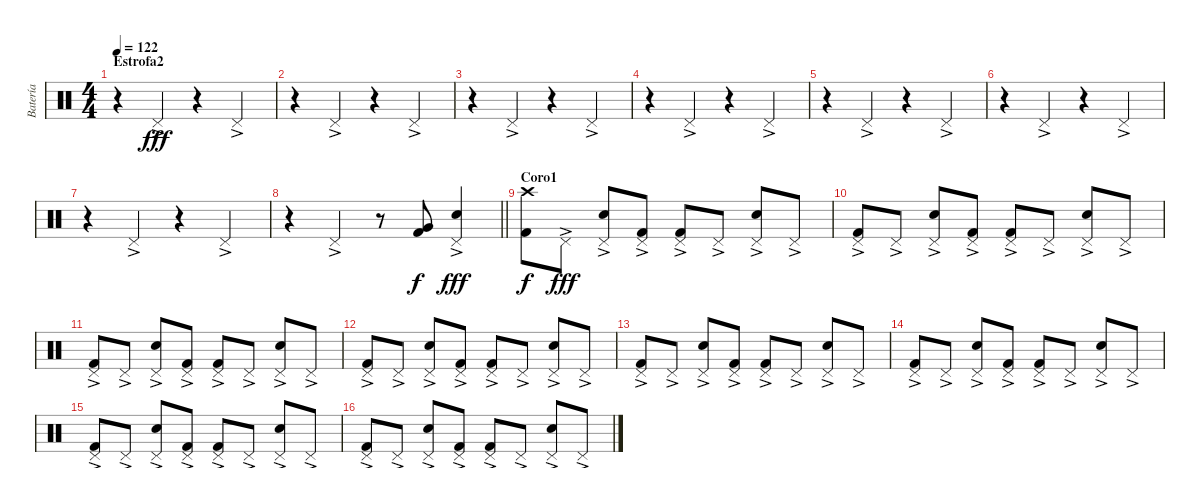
\track ("Batería" "Batería") {instrument percussion}
\staff {score}
\articulation defaults
\ts (4 4)
\section ("" "Estrofa2")
\tempo 122
\clef neutral
\ks c
r.4{dy fff} "Pedal Hi-Hat (hit)"{ac}.4 r.4 "Pedal Hi-Hat (hit)"{ac}.4 |
r.4 "Pedal Hi-Hat (hit)"{ac}.4 r.4 "Pedal Hi-Hat (hit)"{ac}.4 |
r.4 "Pedal Hi-Hat (hit)"{ac}.4 r.4 "Pedal Hi-Hat (hit)"{ac}.4 |
r.4 "Pedal Hi-Hat (hit)"{ac}.4 r.4 "Pedal Hi-Hat (hit)"{ac}.4 |
r.4 "Pedal Hi-Hat (hit)"{ac}.4 r.4 "Pedal Hi-Hat (hit)"{ac}.4 |
r.4 "Pedal Hi-Hat (hit)"{ac}.4 r.4 "Pedal Hi-Hat (hit)"{ac}.4 |
r.4 "Pedal Hi-Hat (hit)"{ac}.4 r.4 "Pedal Hi-Hat (hit)"{ac}.4 |
\barLineRight lightlight
r.4 "Pedal Hi-Hat (hit)"{ac}.4 r.8 ("Very Low Tom (hit)" "Kick (hit) 2").8{dy f} ("Pedal Hi-Hat (hit)" "Electric Snare (hit)"{ac}).4{dy fff} |
\section ("" "Coro1")
("Crash high (hit)" "Kick (hit) 2").8{dy f} "Pedal Hi-Hat (hit)"{ac}.8{dy fff} ("Pedal Hi-Hat (hit)"{ac} "Electric Snare (hit)").8 ("Pedal Hi-Hat (hit)"{ac} "Kick (hit) 2").8 ("Pedal Hi-Hat (hit)"{ac} "Kick (hit) 2").8 "Pedal Hi-Hat (hit)"{ac}.8 ("Pedal Hi-Hat (hit)"{ac} "Electric Snare (hit)").8 "Pedal Hi-Hat (hit)"{ac}.8 |
("Pedal Hi-Hat (hit)"{ac} "Kick (hit) 2").8 "Pedal Hi-Hat (hit)"{ac}.8 ("Pedal Hi-Hat (hit)"{ac} "Electric Snare (hit)").8 ("Pedal Hi-Hat (hit)"{ac} "Kick (hit) 2").8 ("Pedal Hi-Hat (hit)"{ac} "Kick (hit) 2").8 "Pedal Hi-Hat (hit)"{ac}.8 ("Pedal Hi-Hat (hit)"{ac} "Electric Snare (hit)").8 "Pedal Hi-Hat (hit)"{ac}.8 |
("Pedal Hi-Hat (hit)"{ac} "Kick (hit) 2").8 "Pedal Hi-Hat (hit)"{ac}.8 ("Pedal Hi-Hat (hit)"{ac} "Electric Snare (hit)").8 ("Pedal Hi-Hat (hit)"{ac} "Kick (hit) 2").8 ("Pedal Hi-Hat (hit)"{ac} "Kick (hit) 2").8 "Pedal Hi-Hat (hit)"{ac}.8 ("Pedal Hi-Hat (hit)"{ac} "Electric Snare (hit)").8 "Pedal Hi-Hat (hit)"{ac}.8 |
("Pedal Hi-Hat (hit)"{ac} "Kick (hit) 2").8 "Pedal Hi-Hat (hit)"{ac}.8 ("Pedal Hi-Hat (hit)"{ac} "Electric Snare (hit)").8 ("Pedal Hi-Hat (hit)"{ac} "Kick (hit) 2").8 ("Pedal Hi-Hat (hit)"{ac} "Kick (hit) 2").8 "Pedal Hi-Hat (hit)"{ac}.8 ("Pedal Hi-Hat (hit)"{ac} "Electric Snare (hit)").8 "Pedal Hi-Hat (hit)"{ac}.8 |
("Pedal Hi-Hat (hit)"{ac} "Kick (hit) 2").8 "Pedal Hi-Hat (hit)"{ac}.8 ("Pedal Hi-Hat (hit)"{ac} "Electric Snare (hit)").8 ("Pedal Hi-Hat (hit)"{ac} "Kick (hit) 2").8 ("Pedal Hi-Hat (hit)"{ac} "Kick (hit) 2").8 "Pedal Hi-Hat (hit)"{ac}.8 ("Pedal Hi-Hat (hit)"{ac} "Electric Snare (hit)").8 "Pedal Hi-Hat (hit)"{ac}.8 |
("Pedal Hi-Hat (hit)"{ac} "Kick (hit) 2").8 "Pedal Hi-Hat (hit)"{ac}.8 ("Pedal Hi-Hat (hit)"{ac} "Electric Snare (hit)").8 ("Pedal Hi-Hat (hit)"{ac} "Kick (hit) 2").8 ("Pedal Hi-Hat (hit)"{ac} "Kick (hit) 2").8 "Pedal Hi-Hat (hit)"{ac}.8 ("Pedal Hi-Hat (hit)"{ac} "Electric Snare (hit)").8 "Pedal Hi-Hat (hit)"{ac}.8 |
("Pedal Hi-Hat (hit)"{ac} "Kick (hit) 2").8 "Pedal Hi-Hat (hit)"{ac}.8 ("Pedal Hi-Hat (hit)"{ac} "Electric Snare (hit)").8 ("Pedal Hi-Hat (hit)"{ac} "Kick (hit) 2").8 ("Pedal Hi-Hat (hit)"{ac} "Kick (hit) 2").8 "Pedal Hi-Hat (hit)"{ac}.8 ("Pedal Hi-Hat (hit)"{ac} "Electric Snare (hit)").8 "Pedal Hi-Hat (hit)"{ac}.8 |
("Pedal Hi-Hat (hit)"{ac} "Kick (hit) 2").8 "Pedal Hi-Hat (hit)"{ac}.8 ("Pedal Hi-Hat (hit)"{ac} "Electric Snare (hit)").8 ("Pedal Hi-Hat (hit)"{ac} "Kick (hit) 2").8 ("Pedal Hi-Hat (hit)"{ac} "Kick (hit) 2").8 "Pedal Hi-Hat (hit)"{ac}.8 ("Pedal Hi-Hat (hit)"{ac} "Electric Snare (hit)").8 "Pedal Hi-Hat (hit)"{ac}.8
